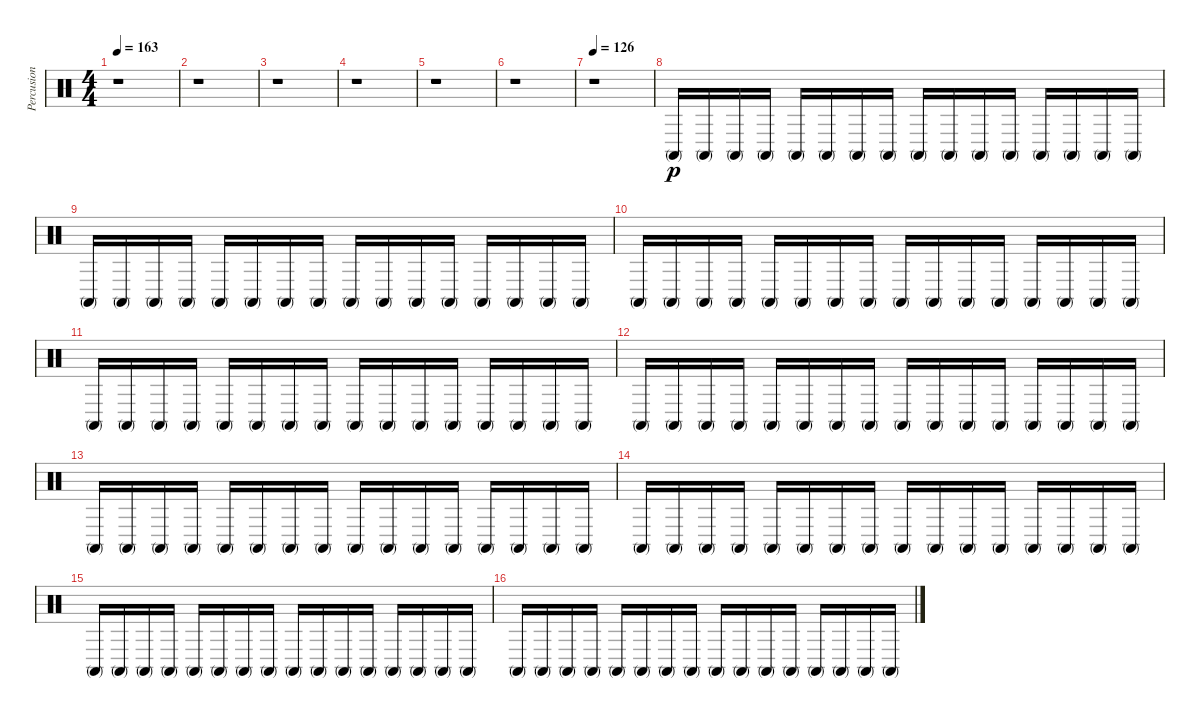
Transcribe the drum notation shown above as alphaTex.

\track ("Percusion" "Percusion") {instrument percussion}
\staff {score}
\articulation defaults
\ts (4 4)
\tempo 163
\clef neutral
\ks c
r.1{dy f} |
r.1 |
r.1 |
r.1 |
r.1 |
r.1 |
\tempo 126
r.1 |
"Conga high (mute)".16{dy p} "Conga high (mute)".16 "Conga high (mute)".16 "Conga high (mute)".16 "Conga high (mute)".16 "Conga high (mute)".16 "Conga high (mute)".16 "Conga high (mute)".16 "Conga high (mute)".16 "Conga high (mute)".16 "Conga high (mute)".16 "Conga high (mute)".16 "Conga high (mute)".16 "Conga high (mute)".16 "Conga high (mute)".16 "Conga high (mute)".16 |
"Conga high (mute)".16 "Conga high (mute)".16 "Conga high (mute)".16 "Conga high (mute)".16 "Conga high (mute)".16 "Conga high (mute)".16 "Conga high (mute)".16 "Conga high (mute)".16 "Conga high (mute)".16 "Conga high (mute)".16 "Conga high (mute)".16 "Conga high (mute)".16 "Conga high (mute)".16 "Conga high (mute)".16 "Conga high (mute)".16 "Conga high (mute)".16 |
"Conga high (mute)".16 "Conga high (mute)".16 "Conga high (mute)".16 "Conga high (mute)".16 "Conga high (mute)".16 "Conga high (mute)".16 "Conga high (mute)".16 "Conga high (mute)".16 "Conga high (mute)".16 "Conga high (mute)".16 "Conga high (mute)".16 "Conga high (mute)".16 "Conga high (mute)".16 "Conga high (mute)".16 "Conga high (mute)".16 "Conga high (mute)".16 |
"Conga high (mute)".16 "Conga high (mute)".16 "Conga high (mute)".16 "Conga high (mute)".16 "Conga high (mute)".16 "Conga high (mute)".16 "Conga high (mute)".16 "Conga high (mute)".16 "Conga high (mute)".16 "Conga high (mute)".16 "Conga high (mute)".16 "Conga high (mute)".16 "Conga high (mute)".16 "Conga high (mute)".16 "Conga high (mute)".16 "Conga high (mute)".16 |
"Conga high (mute)".16 "Conga high (mute)".16 "Conga high (mute)".16 "Conga high (mute)".16 "Conga high (mute)".16 "Conga high (mute)".16 "Conga high (mute)".16 "Conga high (mute)".16 "Conga high (mute)".16 "Conga high (mute)".16 "Conga high (mute)".16 "Conga high (mute)".16 "Conga high (mute)".16 "Conga high (mute)".16 "Conga high (mute)".16 "Conga high (mute)".16 |
"Conga high (mute)".16 "Conga high (mute)".16 "Conga high (mute)".16 "Conga high (mute)".16 "Conga high (mute)".16 "Conga high (mute)".16 "Conga high (mute)".16 "Conga high (mute)".16 "Conga high (mute)".16 "Conga high (mute)".16 "Conga high (mute)".16 "Conga high (mute)".16 "Conga high (mute)".16 "Conga high (mute)".16 "Conga high (mute)".16 "Conga high (mute)".16 |
"Conga high (mute)".16 "Conga high (mute)".16 "Conga high (mute)".16 "Conga high (mute)".16 "Conga high (mute)".16 "Conga high (mute)".16 "Conga high (mute)".16 "Conga high (mute)".16 "Conga high (mute)".16 "Conga high (mute)".16 "Conga high (mute)".16 "Conga high (mute)".16 "Conga high (mute)".16 "Conga high (mute)".16 "Conga high (mute)".16 "Conga high (mute)".16 |
"Conga high (mute)".16 "Conga high (mute)".16 "Conga high (mute)".16 "Conga high (mute)".16 "Conga high (mute)".16 "Conga high (mute)".16 "Conga high (mute)".16 "Conga high (mute)".16 "Conga high (mute)".16 "Conga high (mute)".16 "Conga high (mute)".16 "Conga high (mute)".16 "Conga high (mute)".16 "Conga high (mute)".16 "Conga high (mute)".16 "Conga high (mute)".16 |
"Conga high (mute)".16 "Conga high (mute)".16 "Conga high (mute)".16 "Conga high (mute)".16 "Conga high (mute)".16 "Conga high (mute)".16 "Conga high (mute)".16 "Conga high (mute)".16 "Conga high (mute)".16 "Conga high (mute)".16 "Conga high (mute)".16 "Conga high (mute)".16 "Conga high (mute)".16 "Conga high (mute)".16 "Conga high (mute)".16 "Conga high (mute)".16
